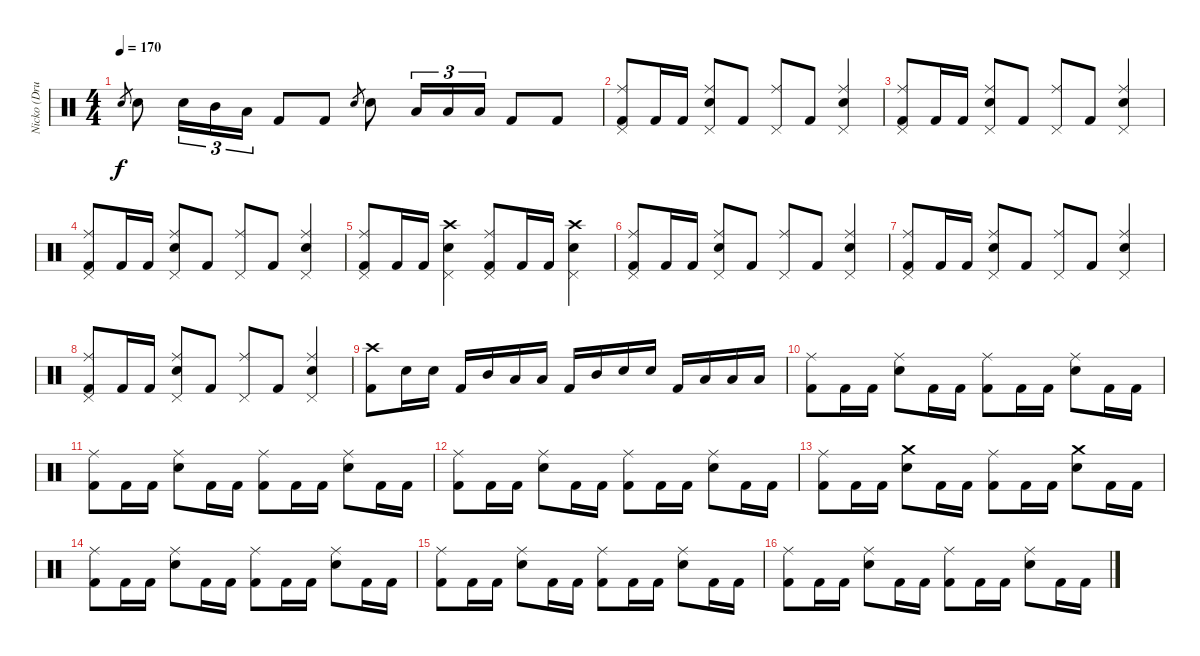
\track ("Nicko (Drums)" "Nicko (Dru") {instrument percussion}
\staff {score}
\articulation defaults
\ts (4 4)
\tempo 170
\clef neutral
\ks c "Snare (hit) 2".8{gr dy f} "Snare (hit) 2".8 "Snare (hit) 2".16{tu (3 2)} "Mid Tom (hit)".16{tu (3 2)} "Low Tom (hit)".16{tu (3 2)} "Kick (hit) 2".8 "Kick (hit) 2".8 "Snare (hit) 2".8{gr} "Snare (hit) 2".8 "Low Floor Tom (hit)".16{tu (3 2)} "Low Tom (hit)".16{tu (3 2)} "Low Floor Tom (hit)".16{tu (3 2)} "Kick (hit) 2".8 "Kick (hit) 2".8
|
("Ride (middle)" "Pedal Hi-Hat (hit)" "Kick (hit) 2").8 "Kick (hit) 2".16 "Kick (hit) 2".16 ("Ride (middle)" "Snare (hit) 2" "Pedal Hi-Hat (hit)").8 "Kick (hit) 2".8 ("Ride (middle)" "Pedal Hi-Hat (hit)").8 "Kick (hit) 2".8 ("Ride (middle)" "Snare (hit) 2" "Pedal Hi-Hat (hit)").4 |
("Ride (middle)" "Pedal Hi-Hat (hit)" "Kick (hit) 2").8 "Kick (hit) 2".16 "Kick (hit) 2".16 ("Ride (middle)" "Snare (hit) 2" "Pedal Hi-Hat (hit)").8 "Kick (hit) 2".8 ("Ride (middle)" "Pedal Hi-Hat (hit)").8 "Kick (hit) 2".8 ("Ride (middle)" "Snare (hit) 2" "Pedal Hi-Hat (hit)").4 |
("Ride (middle)" "Pedal Hi-Hat (hit)" "Kick (hit) 2").8 "Kick (hit) 2".16 "Kick (hit) 2".16 ("Ride (middle)" "Snare (hit) 2" "Pedal Hi-Hat (hit)").8 "Kick (hit) 2".8 ("Ride (middle)" "Pedal Hi-Hat (hit)").8 "Kick (hit) 2".8 ("Ride (middle)" "Snare (hit) 2" "Pedal Hi-Hat (hit)").4 |
("Ride (middle)" "Pedal Hi-Hat (hit)" "Kick (hit) 2").8 "Kick (hit) 2".16 "Kick (hit) 2".16 ("Crash high (hit)" "Snare (hit) 2" "Pedal Hi-Hat (hit)").4 ("Ride (middle)" "Pedal Hi-Hat (hit)" "Kick (hit) 2").8 "Kick (hit) 2".16 "Kick (hit) 2".16 ("Crash high (hit)" "Snare (hit) 2" "Pedal Hi-Hat (hit)").4 |
("Ride (middle)" "Pedal Hi-Hat (hit)" "Kick (hit) 2").8 "Kick (hit) 2".16 "Kick (hit) 2".16 ("Ride (middle)" "Snare (hit) 2" "Pedal Hi-Hat (hit)").8 "Kick (hit) 2".8 ("Ride (middle)" "Pedal Hi-Hat (hit)").8 "Kick (hit) 2".8 ("Ride (middle)" "Snare (hit) 2" "Pedal Hi-Hat (hit)").4 |
("Ride (middle)" "Pedal Hi-Hat (hit)" "Kick (hit) 2").8 "Kick (hit) 2".16 "Kick (hit) 2".16 ("Ride (middle)" "Snare (hit) 2" "Pedal Hi-Hat (hit)").8 "Kick (hit) 2".8 ("Ride (middle)" "Pedal Hi-Hat (hit)").8 "Kick (hit) 2".8 ("Ride (middle)" "Snare (hit) 2" "Pedal Hi-Hat (hit)").4 |
("Ride (middle)" "Pedal Hi-Hat (hit)" "Kick (hit) 2").8 "Kick (hit) 2".16 "Kick (hit) 2".16 ("Ride (middle)" "Snare (hit) 2" "Pedal Hi-Hat (hit)").8 "Kick (hit) 2".8 ("Ride (middle)" "Pedal Hi-Hat (hit)").8 "Kick (hit) 2".8 ("Ride (middle)" "Snare (hit) 2" "Pedal Hi-Hat (hit)").4 |
("Crash high (hit)" "Kick (hit) 2").8 "Snare (hit) 2".16 "Snare (hit) 2".16 "Kick (hit) 2".16 "Mid Tom (hit)".16 "Low Tom (hit)".16 "Low Tom (hit)".16 "Kick (hit) 2".16 "Mid Tom (hit)".16 "Snare (hit) 2".16 "Snare (hit) 2".16 "Kick (hit) 2".16 "Low Tom (hit)".16 "Low Floor Tom (hit)".16 "Low Floor Tom (hit)".16 |
("Ride (middle)" "Kick (hit) 2").8 "Kick (hit) 2".16 "Kick (hit) 2".16 ("Ride (middle)" "Snare (hit) 2").8 "Kick (hit) 2".16 "Kick (hit) 2".16 ("Ride (middle)" "Kick (hit) 2").8 "Kick (hit) 2".16 "Kick (hit) 2".16 ("Ride (middle)" "Snare (hit) 2").8 "Kick (hit) 2".16 "Kick (hit) 2".16 |
("Ride (middle)" "Kick (hit) 2").8 "Kick (hit) 2".16 "Kick (hit) 2".16 ("Ride (middle)" "Snare (hit) 2").8 "Kick (hit) 2".16 "Kick (hit) 2".16 ("Ride (middle)" "Kick (hit) 2").8 "Kick (hit) 2".16 "Kick (hit) 2".16 ("Ride (middle)" "Snare (hit) 2").8 "Kick (hit) 2".16 "Kick (hit) 2".16 |
("Ride (middle)" "Kick (hit) 2").8 "Kick (hit) 2".16 "Kick (hit) 2".16 ("Ride (middle)" "Snare (hit) 2").8 "Kick (hit) 2".16 "Kick (hit) 2".16 ("Ride (middle)" "Kick (hit) 2").8 "Kick (hit) 2".16 "Kick (hit) 2".16 ("Ride (middle)" "Snare (hit) 2").8 "Kick (hit) 2".16 "Kick (hit) 2".16 |
("Ride (middle)" "Kick (hit) 2").8 "Kick (hit) 2".16 "Kick (hit) 2".16 ("Crash medium (hit)" "Snare (hit) 2").8 "Kick (hit) 2".16 "Kick (hit) 2".16 ("Ride (middle)" "Kick (hit) 2").8 "Kick (hit) 2".16 "Kick (hit) 2".16 ("Crash medium (hit)" "Snare (hit) 2").8 "Kick (hit) 2".16 "Kick (hit) 2".16 |
("Ride (middle)" "Kick (hit) 2").8 "Kick (hit) 2".16 "Kick (hit) 2".16 ("Ride (middle)" "Snare (hit) 2").8 "Kick (hit) 2".16 "Kick (hit) 2".16 ("Ride (middle)" "Kick (hit) 2").8 "Kick (hit) 2".16 "Kick (hit) 2".16 ("Ride (middle)" "Snare (hit) 2").8 "Kick (hit) 2".16 "Kick (hit) 2".16 |
("Ride (middle)" "Kick (hit) 2").8 "Kick (hit) 2".16 "Kick (hit) 2".16 ("Ride (middle)" "Snare (hit) 2").8 "Kick (hit) 2".16 "Kick (hit) 2".16 ("Ride (middle)" "Kick (hit) 2").8 "Kick (hit) 2".16 "Kick (hit) 2".16 ("Ride (middle)" "Snare (hit) 2").8 "Kick (hit) 2".16 "Kick (hit) 2".16 |
("Ride (middle)" "Kick (hit) 2").8 "Kick (hit) 2".16 "Kick (hit) 2".16 ("Ride (middle)" "Snare (hit) 2").8 "Kick (hit) 2".16 "Kick (hit) 2".16 ("Ride (middle)" "Kick (hit) 2").8 "Kick (hit) 2".16 "Kick (hit) 2".16 ("Ride (middle)" "Snare (hit) 2").8 "Kick (hit) 2".16 "Kick (hit) 2".16
